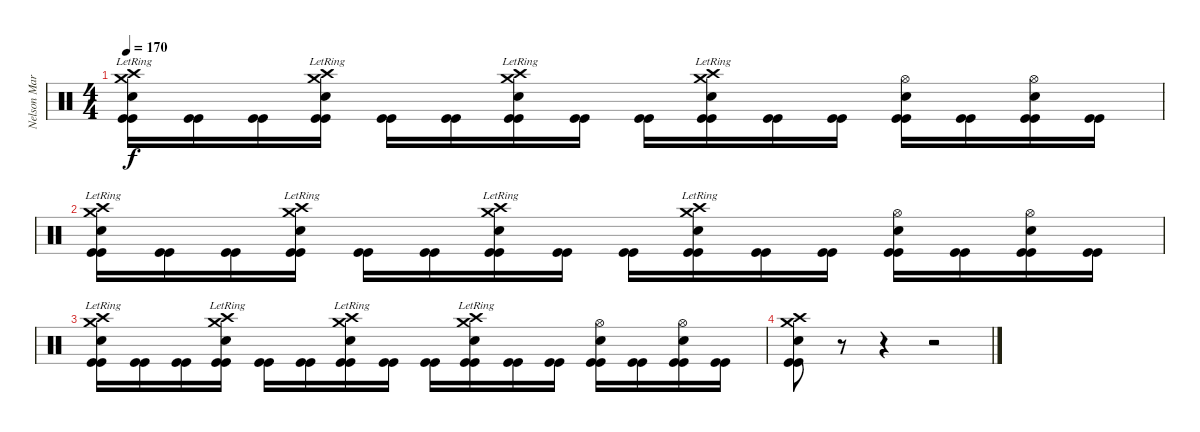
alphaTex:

\track ("Nelson Maria" "Nelson Mar") {instrument percussion}
\staff {score}
\articulation defaults
\ts (4 4)
\tempo 170
\clef neutral
\ks c
("Crash high (hit)"{lr} "Crash medium (hit)"{lr} "Snare (hit) 2" "Kick (hit)" "Kick (hit)").16{dy f} ("Kick (hit)" "Kick (hit)").16 ("Kick (hit)" "Kick (hit)").16 ("Crash high (hit)"{lr} "Crash medium (hit)"{lr} "Snare (hit) 2" "Kick (hit)" "Kick (hit)").16 ("Kick (hit)" "Kick (hit)").16 ("Kick (hit)" "Kick (hit)").16 ("Crash high (hit)"{lr} "Crash medium (hit)"{lr} "Snare (hit) 2" "Kick (hit)" "Kick (hit)").16 ("Kick (hit)" "Kick (hit)").16 ("Kick (hit)" "Kick (hit)").16 ("Crash high (hit)"{lr} "Crash medium (hit)"{lr} "Snare (hit) 2" "Kick (hit)" "Kick (hit)").16 ("Kick (hit)" "Kick (hit)").16 ("Kick (hit)" "Kick (hit)").16 ("Snare (hit) 2" "Hi-Hat (open)" "Kick (hit)" "Kick (hit)").16 ("Kick (hit)" "Kick (hit)").16 ("Snare (hit) 2" "Hi-Hat (open)" "Kick (hit)" "Kick (hit)").16 ("Kick (hit)" "Kick (hit)").16 |
("Crash high (hit)"{lr} "Crash medium (hit)"{lr} "Snare (hit) 2" "Kick (hit)" "Kick (hit)").16 ("Kick (hit)" "Kick (hit)").16 ("Kick (hit)" "Kick (hit)").16 ("Crash high (hit)"{lr} "Crash medium (hit)"{lr} "Snare (hit) 2" "Kick (hit)" "Kick (hit)").16 ("Kick (hit)" "Kick (hit)").16 ("Kick (hit)" "Kick (hit)").16 ("Crash high (hit)"{lr} "Crash medium (hit)"{lr} "Snare (hit) 2" "Kick (hit)" "Kick (hit)").16 ("Kick (hit)" "Kick (hit)").16 ("Kick (hit)" "Kick (hit)").16 ("Crash high (hit)"{lr} "Crash medium (hit)"{lr} "Snare (hit) 2" "Kick (hit)" "Kick (hit)").16 ("Kick (hit)" "Kick (hit)").16 ("Kick (hit)" "Kick (hit)").16 ("Snare (hit) 2" "Hi-Hat (open)" "Kick (hit)" "Kick (hit)").16 ("Kick (hit)" "Kick (hit)").16 ("Snare (hit) 2" "Hi-Hat (open)" "Kick (hit)" "Kick (hit)").16 ("Kick (hit)" "Kick (hit)").16 |
("Crash high (hit)"{lr} "Crash medium (hit)"{lr} "Snare (hit) 2" "Kick (hit)" "Kick (hit)").16 ("Kick (hit)" "Kick (hit)").16 ("Kick (hit)" "Kick (hit)").16 ("Crash high (hit)"{lr} "Crash medium (hit)"{lr} "Snare (hit) 2" "Kick (hit)" "Kick (hit)").16 ("Kick (hit)" "Kick (hit)").16 ("Kick (hit)" "Kick (hit)").16 ("Crash high (hit)"{lr} "Crash medium (hit)"{lr} "Snare (hit) 2" "Kick (hit)" "Kick (hit)").16 ("Kick (hit)" "Kick (hit)").16 ("Kick (hit)" "Kick (hit)").16 ("Crash high (hit)"{lr} "Crash medium (hit)"{lr} "Snare (hit) 2" "Kick (hit)" "Kick (hit)").16 ("Kick (hit)" "Kick (hit)").16 ("Kick (hit)" "Kick (hit)").16 ("Snare (hit) 2" "Hi-Hat (open)" "Kick (hit)" "Kick (hit)").16 ("Kick (hit)" "Kick (hit)").16 ("Snare (hit) 2" "Hi-Hat (open)" "Kick (hit)" "Kick (hit)").16 ("Kick (hit)" "Kick (hit)").16 |
("Crash high (hit)" "Crash medium (hit)" "Snare (hit) 2" "Kick (hit)" "Kick (hit)").8 r.8 r.4 r.2
